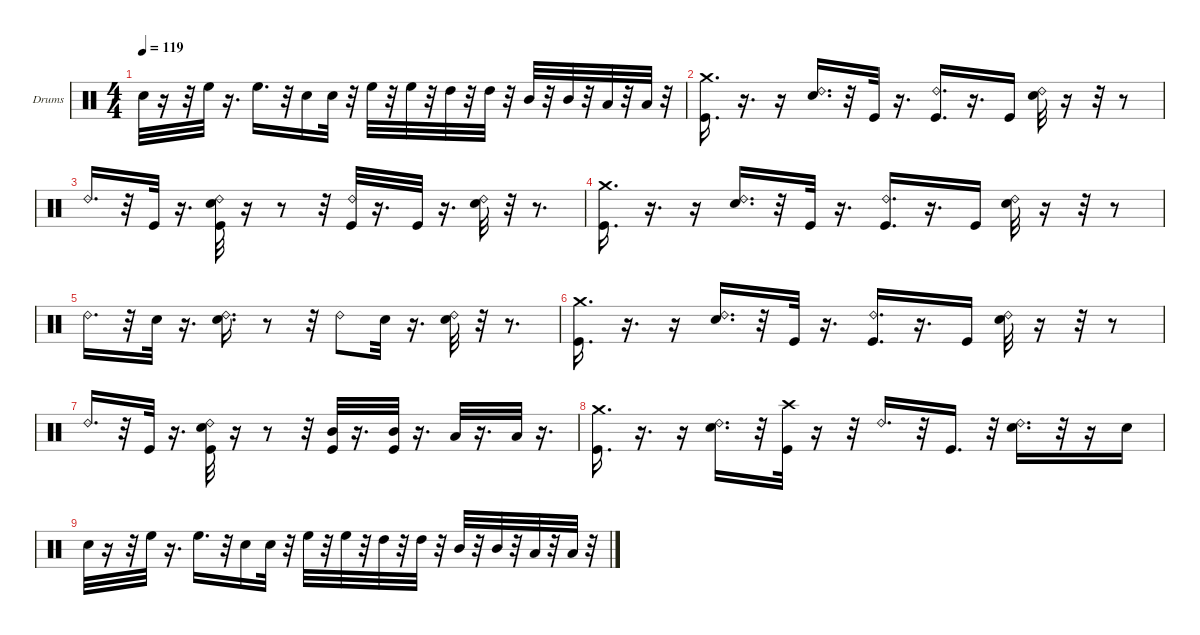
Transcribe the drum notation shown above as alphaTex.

\hideDynamics
\bracketExtendMode groupsimilarinstruments
\firstSystemTrackNameOrientation horizontal
\otherSystemsTrackNameOrientation horizontal
\track ("Drums" "Drums") {instrument percussion}
\staff {score}
\articulation defaults
\ts (4 4)
\tempo 119
\clef neutral
\ks c "Snare (hit) 2".32{dy mf}
r.16 r.32 "High Floor Tom (hit)".32 r.16{d} "High Floor Tom (hit)".16{d} r.32 "Snare (hit) 2".16 "Snare (hit) 2".32 r.32 "High Floor Tom (hit)".32 r.32 "High Floor Tom (hit)".32 r.32 "High Tom (hit)".32 r.32 "High Tom (hit)".32 r.32 "Mid Tom (hit)".32 r.32 "Mid Tom (hit)".32 r.32 "Low Tom (hit)".32 r.32 "Low Tom (hit)".32 r.32 |
("Crash medium (hit)" "Kick (hit)").16{d} r.16{d} r.16 ("Snare (hit) 2" "Ride (bell) 2").16{d} r.32 "Kick (hit)".32 r.16{d} ("Ride (bell) 2" "Kick (hit)").16{d} r.16{d} "Kick (hit)".16 ("Snare (hit) 2" "Ride (bell) 2").32 r.16 r.32 r.8 |
"Ride (bell) 2".16{d} r.32 "Kick (hit)".32 r.16{d} ("Ride (bell) 2" "Kick (hit)" "Snare (hit) 2").32 r.16 r.8 r.32 ("Ride (bell) 2" "Kick (hit)").32 r.16{d} "Kick (hit)".32 r.16{d} ("Ride (bell) 2" "Snare (hit) 2").32 r.32 r.8{d} |
("Crash medium (hit)" "Kick (hit)").16{d} r.16{d} r.16 ("Snare (hit) 2" "Ride (bell) 2").16{d} r.32 "Kick (hit)".32 r.16{d} ("Ride (bell) 2" "Kick (hit)").16{d} r.16{d} "Kick (hit)".16 ("Snare (hit) 2" "Ride (bell) 2").32 r.16 r.32 r.8 |
"Ride (bell) 2".16{d} r.32 "Snare (hit) 2".32 r.16{d} ("Ride (bell) 2" "Snare (hit) 2").16{d} r.8 r.32 "Ride (bell) 2".8 "Snare (hit) 2".32 r.16{d} ("Ride (bell) 2" "Snare (hit) 2").32 r.32 r.8{d} |
("Crash medium (hit)" "Kick (hit)").16{d} r.16{d} r.16 ("Snare (hit) 2" "Ride (bell) 2").16{d} r.32 "Kick (hit)".32 r.16{d} ("Ride (bell) 2" "Kick (hit)").16{d} r.16{d} "Kick (hit)".16 ("Snare (hit) 2" "Ride (bell) 2").32 r.16 r.32 r.8 |
"Ride (bell) 2".16{d} r.32 "Kick (hit)".32 r.16{d} ("Ride (bell) 2" "Kick (hit)" "Snare (hit) 2").32 r.16 r.8 r.32 ("Kick (hit)" "Mid Tom (hit)").32 r.16{d} ("Kick (hit)" "Mid Tom (hit)").32 r.16{d} "Low Tom (hit)".32 r.16{d} "Low Tom (hit)".32 r.16{d} |
("Kick (hit)" "Crash medium (hit)").16{d} r.16{d} r.16 ("Snare (hit) 2" "Ride (bell) 2").16{d} r.32 ("Crash high (hit)" "Kick (hit)").32 r.16 r.32 "Ride (bell) 2".16{d} r.32 "Kick (hit)".16{d} r.32 ("Snare (hit) 2" "Ride (bell) 2").16{d} r.32 r.16 "Snare (hit) 2".16 |
"Snare (hit) 2".32 r.16 r.32 "High Floor Tom (hit)".32 r.16{d} "High Floor Tom (hit)".16{d} r.32 "Snare (hit) 2".16 "Snare (hit) 2".32 r.32 "High Floor Tom (hit)".32 r.32 "High Floor Tom (hit)".32 r.32 "High Tom (hit)".32 r.32 "High Tom (hit)".32 r.32 "Mid Tom (hit)".32 r.32 "Mid Tom (hit)".32 r.32 "Low Tom (hit)".32 r.32 "Low Tom (hit)".32 r.32
